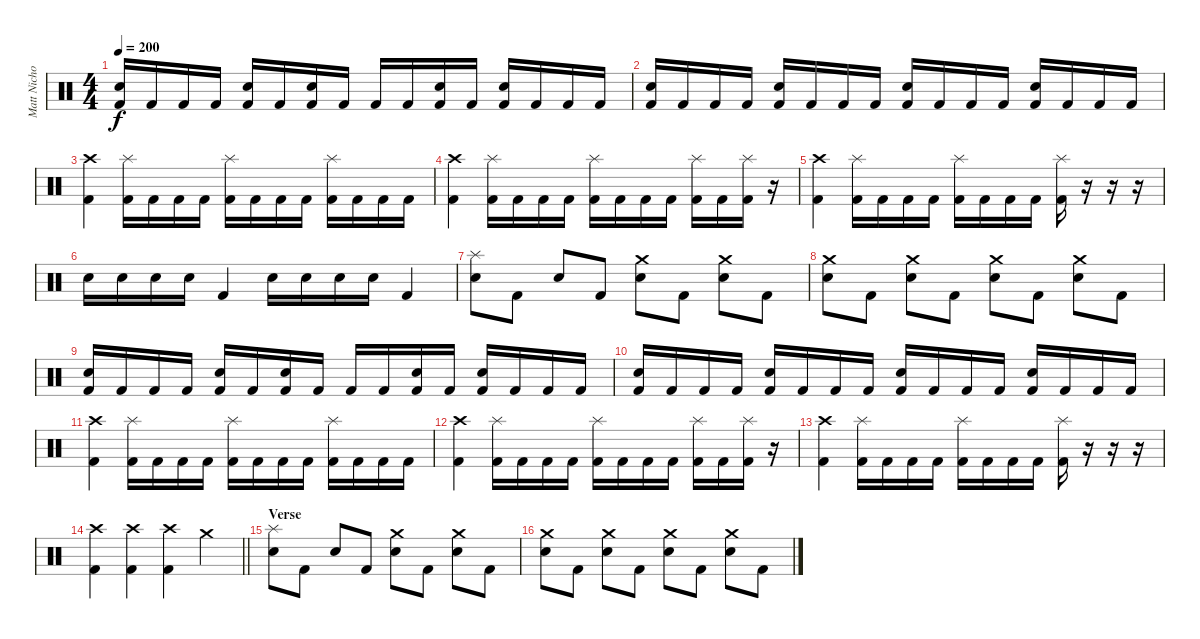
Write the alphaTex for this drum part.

\track ("Matt Nicholls" "Matt Nicho") {instrument percussion}
\staff {score}
\articulation defaults
\ts (4 4)
\tempo 200
\clef neutral
\ks c
("Snare (hit) 2" "Kick (hit) 2").16{dy f} "Kick (hit) 2".16 "Kick (hit) 2".16 "Kick (hit) 2".16 ("Snare (hit) 2" "Kick (hit) 2").16 "Kick (hit) 2".16 ("Snare (hit) 2" "Kick (hit) 2").16 "Kick (hit) 2".16 "Kick (hit) 2".16 "Kick (hit) 2".16 ("Snare (hit) 2" "Kick (hit) 2").16 "Kick (hit) 2".16 ("Snare (hit) 2" "Kick (hit) 2").16 "Kick (hit) 2".16 "Kick (hit) 2".16 "Kick (hit) 2".16 |
("Snare (hit) 2" "Kick (hit) 2").16 "Kick (hit) 2".16 "Kick (hit) 2".16 "Kick (hit) 2".16 ("Snare (hit) 2" "Kick (hit) 2").16 "Kick (hit) 2".16 "Kick (hit) 2".16 "Kick (hit) 2".16 ("Snare (hit) 2" "Kick (hit) 2").16 "Kick (hit) 2".16 "Kick (hit) 2".16 "Kick (hit) 2".16 ("Snare (hit) 2" "Kick (hit) 2").16 "Kick (hit) 2".16 "Kick (hit) 2".16 "Kick (hit) 2".16 |
("Crash high (hit)" "Kick (hit) 2").4 ("Splash (hit)" "Kick (hit) 2").16 "Kick (hit) 2".16 "Kick (hit) 2".16 "Kick (hit) 2".16 ("Splash (hit)" "Kick (hit) 2").16 "Kick (hit) 2".16 "Kick (hit) 2".16 "Kick (hit) 2".16 ("Splash (hit)" "Kick (hit) 2").16 "Kick (hit) 2".16 "Kick (hit) 2".16 "Kick (hit) 2".16 |
("Crash high (hit)" "Kick (hit) 2").4 ("Splash (hit)" "Kick (hit) 2").16 "Kick (hit) 2".16 "Kick (hit) 2".16 "Kick (hit) 2".16 ("Splash (hit)" "Kick (hit) 2").16 "Kick (hit) 2".16 "Kick (hit) 2".16 "Kick (hit) 2".16 ("Splash (hit)" "Kick (hit) 2").16 "Kick (hit) 2".16 ("Splash (hit)" "Kick (hit) 2").16 r.16 |
("Crash high (hit)" "Kick (hit) 2").4 ("Splash (hit)" "Kick (hit) 2").16 "Kick (hit) 2".16 "Kick (hit) 2".16 "Kick (hit) 2".16 ("Splash (hit)" "Kick (hit) 2").16 "Kick (hit) 2".16 "Kick (hit) 2".16 "Kick (hit) 2".16 ("Splash (hit)" "Kick (hit) 2").16 r.16 r.16 r.16 |
"Snare (hit) 2".16 "Snare (hit) 2".16 "Snare (hit) 2".16 "Snare (hit) 2".16 "Kick (hit) 2".4 "Snare (hit) 2".16 "Snare (hit) 2".16 "Snare (hit) 2".16 "Snare (hit) 2".16 "Kick (hit) 2".4 |
("Splash (hit)" "Snare (hit) 2").8 "Kick (hit) 2".8 "Snare (hit) 2".8 "Kick (hit) 2".8 ("Crash medium (hit)" "Snare (hit) 2").8 "Kick (hit) 2".8 ("Crash medium (hit)" "Snare (hit) 2").8 "Kick (hit) 2".8 |
("Crash medium (hit)" "Snare (hit) 2").8 "Kick (hit) 2".8 ("Crash medium (hit)" "Snare (hit) 2").8 "Kick (hit) 2".8 ("Crash medium (hit)" "Snare (hit) 2").8 "Kick (hit) 2".8 ("Crash medium (hit)" "Snare (hit) 2").8 "Kick (hit) 2".8 |
("Snare (hit) 2" "Kick (hit) 2").16 "Kick (hit) 2".16 "Kick (hit) 2".16 "Kick (hit) 2".16 ("Snare (hit) 2" "Kick (hit) 2").16 "Kick (hit) 2".16 ("Snare (hit) 2" "Kick (hit) 2").16 "Kick (hit) 2".16 "Kick (hit) 2".16 "Kick (hit) 2".16 ("Snare (hit) 2" "Kick (hit) 2").16 "Kick (hit) 2".16 ("Snare (hit) 2" "Kick (hit) 2").16 "Kick (hit) 2".16 "Kick (hit) 2".16 "Kick (hit) 2".16 |
("Snare (hit) 2" "Kick (hit) 2").16 "Kick (hit) 2".16 "Kick (hit) 2".16 "Kick (hit) 2".16 ("Snare (hit) 2" "Kick (hit) 2").16 "Kick (hit) 2".16 "Kick (hit) 2".16 "Kick (hit) 2".16 ("Snare (hit) 2" "Kick (hit) 2").16 "Kick (hit) 2".16 "Kick (hit) 2".16 "Kick (hit) 2".16 ("Snare (hit) 2" "Kick (hit) 2").16 "Kick (hit) 2".16 "Kick (hit) 2".16 "Kick (hit) 2".16 |
("Crash high (hit)" "Kick (hit) 2").4 ("Splash (hit)" "Kick (hit) 2").16 "Kick (hit) 2".16 "Kick (hit) 2".16 "Kick (hit) 2".16 ("Splash (hit)" "Kick (hit) 2").16 "Kick (hit) 2".16 "Kick (hit) 2".16 "Kick (hit) 2".16 ("Splash (hit)" "Kick (hit) 2").16 "Kick (hit) 2".16 "Kick (hit) 2".16 "Kick (hit) 2".16 |
("Crash high (hit)" "Kick (hit) 2").4 ("Splash (hit)" "Kick (hit) 2").16 "Kick (hit) 2".16 "Kick (hit) 2".16 "Kick (hit) 2".16 ("Splash (hit)" "Kick (hit) 2").16 "Kick (hit) 2".16 "Kick (hit) 2".16 "Kick (hit) 2".16 ("Splash (hit)" "Kick (hit) 2").16 "Kick (hit) 2".16 ("Splash (hit)" "Kick (hit) 2").16 r.16 |
("Crash high (hit)" "Kick (hit) 2").4 ("Splash (hit)" "Kick (hit) 2").16 "Kick (hit) 2".16 "Kick (hit) 2".16 "Kick (hit) 2".16 ("Splash (hit)" "Kick (hit) 2").16 "Kick (hit) 2".16 "Kick (hit) 2".16 "Kick (hit) 2".16 ("Splash (hit)" "Kick (hit) 2").16 r.16 r.16 r.16 |
\barLineRight lightlight
("Crash high (hit)" "Kick (hit) 2").4 ("Crash high (hit)" "Kick (hit) 2").4 ("Crash high (hit)" "Kick (hit) 2").4 "Crash medium (hit)".4 |
\section ("" "Verse")
("Splash (hit)" "Snare (hit) 2").8 "Kick (hit) 2".8 "Snare (hit) 2".8 "Kick (hit) 2".8 ("Crash medium (hit)" "Snare (hit) 2").8 "Kick (hit) 2".8 ("Crash medium (hit)" "Snare (hit) 2").8 "Kick (hit) 2".8 |
("Crash medium (hit)" "Snare (hit) 2").8 "Kick (hit) 2".8 ("Crash medium (hit)" "Snare (hit) 2").8 "Kick (hit) 2".8 ("Crash medium (hit)" "Snare (hit) 2").8 "Kick (hit) 2".8 ("Crash medium (hit)" "Snare (hit) 2").8 "Kick (hit) 2".8
